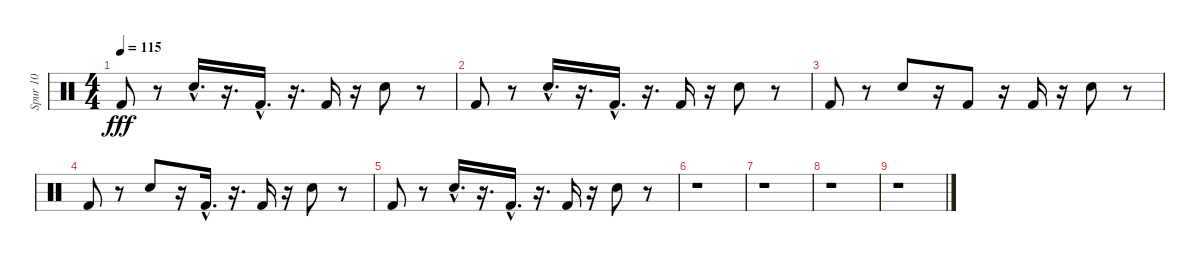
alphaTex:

\track ("Spur 10" "Spur 10") {instrument percussion}
\staff {score}
\articulation defaults
\ts (4 4)
\tempo 115
\clef neutral
\ks c "Kick (hit) 2".8{dy fff}
r.8 "Snare (hit) 2"{hac}.16{d} r.16{d} "Kick (hit) 2"{hac}.16{d} r.16{d} "Kick (hit) 2".16 r.16 "Snare (hit) 2".8 r.8 |
"Kick (hit) 2".8 r.8 "Snare (hit) 2"{hac}.16{d} r.16{d} "Kick (hit) 2"{hac}.16{d} r.16{d} "Kick (hit) 2".16 r.16 "Snare (hit) 2".8 r.8 |
"Kick (hit) 2".8 r.8 "Snare (hit) 2".8 r.16 "Kick (hit) 2".8 r.16 "Kick (hit) 2".16 r.16 "Snare (hit) 2".8 r.8 |
"Kick (hit) 2".8 r.8 "Snare (hit) 2".8 r.16 "Kick (hit) 2"{hac}.16{d} r.16{d} "Kick (hit) 2".16 r.16 "Snare (hit) 2".8 r.8 |
"Kick (hit) 2".8 r.8 "Snare (hit) 2"{hac}.16{d} r.16{d} "Kick (hit) 2"{hac}.16{d} r.16{d} "Kick (hit) 2".16 r.16 "Snare (hit) 2".8 r.8 |
r.1 |
r.1 |
r.1 |
r.1
